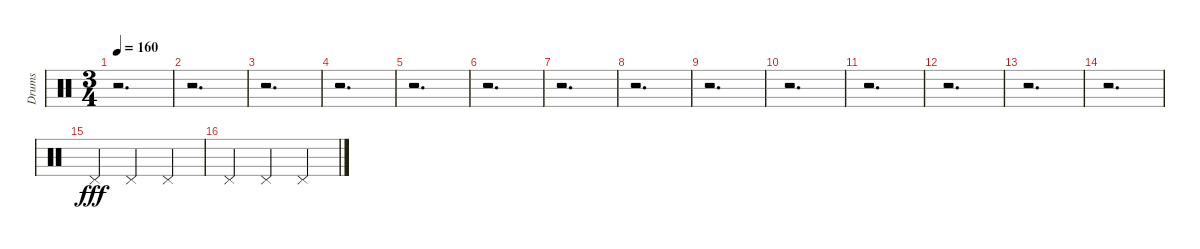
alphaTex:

\track ("Drums" "Drums") {instrument percussion}
\staff {score}
\articulation defaults
\ts (3 4)
\tempo 160
\clef neutral
\ks c
r.2{d dy fff} |
r.2{d} |
r.2{d} |
r.2{d} |
r.2{d} |
r.2{d} |
r.2{d} |
r.2{d} |
r.2{d} |
r.2{d} |
r.2{d} |
r.2{d} |
r.2{d} |
r.2{d} |
"Pedal Hi-Hat (hit)".4 "Pedal Hi-Hat (hit)".4 "Pedal Hi-Hat (hit)".4 |
"Pedal Hi-Hat (hit)".4 "Pedal Hi-Hat (hit)".4 "Pedal Hi-Hat (hit)".4
